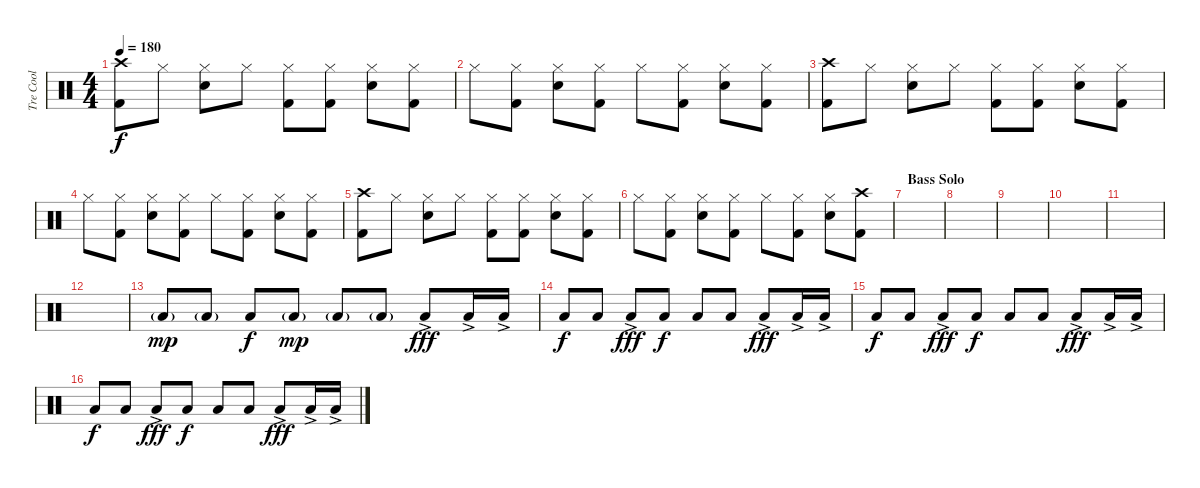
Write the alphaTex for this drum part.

\track ("Tre Cool" "Tre Cool") {instrument percussion}
\staff {score}
\articulation defaults
\ts (4 4)
\tempo 180
\clef neutral
\ks c
("Crash high (hit)" "Kick (hit) 2").8{dy f} "Hi-Hat (closed)".8 ("Hi-Hat (closed)" "Electric Snare (hit)").8 "Hi-Hat (closed)".8 ("Hi-Hat (closed)" "Kick (hit) 2").8 ("Hi-Hat (closed)" "Kick (hit) 2").8 ("Hi-Hat (closed)" "Electric Snare (hit)").8 ("Hi-Hat (closed)" "Kick (hit) 2").8 |
"Hi-Hat (closed)".8 ("Hi-Hat (closed)" "Kick (hit) 2").8 ("Hi-Hat (closed)" "Electric Snare (hit)").8 ("Hi-Hat (closed)" "Kick (hit) 2").8 "Hi-Hat (closed)".8 ("Hi-Hat (closed)" "Kick (hit) 2").8 ("Hi-Hat (closed)" "Electric Snare (hit)").8 ("Hi-Hat (closed)" "Kick (hit) 2").8 |
("Crash high (hit)" "Kick (hit) 2").8 "Hi-Hat (closed)".8 ("Hi-Hat (closed)" "Electric Snare (hit)").8 "Hi-Hat (closed)".8 ("Hi-Hat (closed)" "Kick (hit) 2").8 ("Hi-Hat (closed)" "Kick (hit) 2").8 ("Hi-Hat (closed)" "Electric Snare (hit)").8 ("Hi-Hat (closed)" "Kick (hit) 2").8 |
"Hi-Hat (closed)".8 ("Hi-Hat (closed)" "Kick (hit) 2").8 ("Hi-Hat (closed)" "Electric Snare (hit)").8 ("Hi-Hat (closed)" "Kick (hit) 2").8 "Hi-Hat (closed)".8 ("Hi-Hat (closed)" "Kick (hit) 2").8 ("Hi-Hat (closed)" "Electric Snare (hit)").8 ("Hi-Hat (closed)" "Kick (hit) 2").8 |
("Crash high (hit)" "Kick (hit) 2").8 "Hi-Hat (closed)".8 ("Hi-Hat (closed)" "Electric Snare (hit)").8 "Hi-Hat (closed)".8 ("Hi-Hat (closed)" "Kick (hit) 2").8 ("Hi-Hat (closed)" "Kick (hit) 2").8 ("Hi-Hat (closed)" "Electric Snare (hit)").8 ("Hi-Hat (closed)" "Kick (hit) 2").8 |
"Hi-Hat (closed)".8 ("Hi-Hat (closed)" "Kick (hit) 2").8 ("Hi-Hat (closed)" "Electric Snare (hit)").8 ("Hi-Hat (closed)" "Kick (hit) 2").8 "Hi-Hat (closed)".8 ("Hi-Hat (closed)" "Kick (hit) 2").8 ("Hi-Hat (closed)" "Electric Snare (hit)").8 ("Crash high (hit)" "Kick (hit) 2").8 |
\section ("" "Bass Solo")
|
|
|
|
|
|
"Low Tom (hit)"{g}.8{dy mp} "Low Tom (hit)"{g}.8 "Low Tom (hit)".8{dy f} "Low Tom (hit)"{g}.8{dy mp} "Low Tom (hit)"{g}.8 "Low Tom (hit)"{g}.8 "Low Tom (hit)"{ac}.8{dy fff} "Low Tom (hit)"{ac}.16 "Low Tom (hit)"{ac}.16 |
"Low Tom (hit)".8{dy f} "Low Tom (hit)".8 "Low Tom (hit)"{ac}.8{dy fff} "Low Tom (hit)".8{dy f} "Low Tom (hit)".8 "Low Tom (hit)".8 "Low Tom (hit)"{ac}.8{dy fff} "Low Tom (hit)"{ac}.16 "Low Tom (hit)"{ac}.16 |
"Low Tom (hit)".8{dy f} "Low Tom (hit)".8 "Low Tom (hit)"{ac}.8{dy fff} "Low Tom (hit)".8{dy f} "Low Tom (hit)".8 "Low Tom (hit)".8 "Low Tom (hit)"{ac}.8{dy fff} "Low Tom (hit)"{ac}.16 "Low Tom (hit)"{ac}.16 |
"Low Tom (hit)".8{dy f} "Low Tom (hit)".8 "Low Tom (hit)"{ac}.8{dy fff} "Low Tom (hit)".8{dy f} "Low Tom (hit)".8 "Low Tom (hit)".8 "Low Tom (hit)"{ac}.8{dy fff} "Low Tom (hit)"{ac}.16 "Low Tom (hit)"{ac}.16
